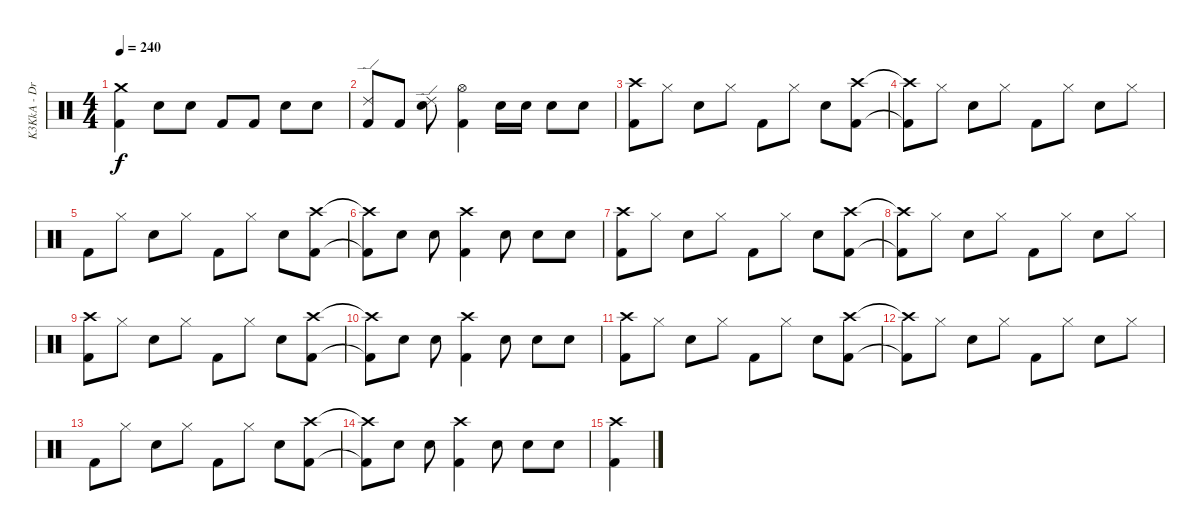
\track ("K3KkA - Drums" "K3KkA - Dr") {instrument percussion}
\staff {score}
\articulation defaults
\ts (4 4)
\tempo 240
\clef neutral
\ks c
("Crash medium (hit)" "Kick (hit) 2").4{dy f} "Electric Snare (hit)".8 "Electric Snare (hit)".8 "Kick (hit) 2".8 "Kick (hit) 2".8 "Electric Snare (hit)".8 "Electric Snare (hit)".8 |
("Ride (edge) 2" "Kick (hit) 2").8 "Kick (hit) 2".8 ("Ride (edge) 2" "Electric Snare (hit)").8 ("Hi-Hat (open)" "Kick (hit) 2").4 "Snare (hit) 2".16 "Snare (hit) 2".16 "Snare (hit) 2".8 "Snare (hit) 2".8 |
("Crash high (hit)" "Kick (hit) 2").8 "Hi-Hat (closed)".8 "Snare (hit) 2".8 "Hi-Hat (closed)".8 "Kick (hit) 2".8 "Hi-Hat (closed)".8 "Snare (hit) 2".8 ("Crash high (hit)" "Kick (hit) 2").8 |
("Crash high (hit)"{t} "Kick (hit) 2"{t}).8 "Hi-Hat (closed)".8 "Snare (hit) 2".8 "Hi-Hat (closed)".8 "Kick (hit) 2".8 "Hi-Hat (closed)".8 "Snare (hit) 2".8 "Hi-Hat (closed)".8 |
"Kick (hit) 2".8 "Hi-Hat (closed)".8 "Snare (hit) 2".8 "Hi-Hat (closed)".8 "Kick (hit) 2".8 "Hi-Hat (closed)".8 "Snare (hit) 2".8 ("Crash high (hit)" "Kick (hit) 2").8 |
("Crash high (hit)"{t} "Kick (hit) 2"{t}).8 "Snare (hit) 2".8 "Snare (hit) 2".8 ("Crash high (hit)" "Kick (hit) 2").4 "Snare (hit) 2".8 "Snare (hit) 2".8 "Snare (hit) 2".8 |
("Crash high (hit)" "Kick (hit) 2").8 "Hi-Hat (closed)".8 "Snare (hit) 2".8 "Hi-Hat (closed)".8 "Kick (hit) 2".8 "Hi-Hat (closed)".8 "Snare (hit) 2".8 ("Crash high (hit)" "Kick (hit) 2").8 |
("Crash high (hit)"{t} "Kick (hit) 2"{t}).8 "Hi-Hat (closed)".8 "Snare (hit) 2".8 "Hi-Hat (closed)".8 "Kick (hit) 2".8 "Hi-Hat (closed)".8 "Snare (hit) 2".8 "Hi-Hat (closed)".8 |
("Crash high (hit)" "Kick (hit) 2").8 "Hi-Hat (closed)".8 "Snare (hit) 2".8 "Hi-Hat (closed)".8 "Kick (hit) 2".8 "Hi-Hat (closed)".8 "Snare (hit) 2".8 ("Crash high (hit)" "Kick (hit) 2").8 |
("Crash high (hit)"{t} "Kick (hit) 2"{t}).8 "Snare (hit) 2".8 "Snare (hit) 2".8 ("Crash high (hit)" "Kick (hit) 2").4 "Snare (hit) 2".8 "Snare (hit) 2".8 "Snare (hit) 2".8 |
("Crash high (hit)" "Kick (hit) 2").8 "Hi-Hat (closed)".8 "Snare (hit) 2".8 "Hi-Hat (closed)".8 "Kick (hit) 2".8 "Hi-Hat (closed)".8 "Snare (hit) 2".8 ("Crash high (hit)" "Kick (hit) 2").8 |
("Crash high (hit)"{t} "Kick (hit) 2"{t}).8 "Hi-Hat (closed)".8 "Snare (hit) 2".8 "Hi-Hat (closed)".8 "Kick (hit) 2".8 "Hi-Hat (closed)".8 "Snare (hit) 2".8 "Hi-Hat (closed)".8 |
"Kick (hit) 2".8 "Hi-Hat (closed)".8 "Snare (hit) 2".8 "Hi-Hat (closed)".8 "Kick (hit) 2".8 "Hi-Hat (closed)".8 "Snare (hit) 2".8 ("Crash high (hit)" "Kick (hit) 2").8 |
("Crash high (hit)"{t} "Kick (hit) 2"{t}).8 "Snare (hit) 2".8 "Snare (hit) 2".8 ("Crash high (hit)" "Kick (hit) 2").4 "Snare (hit) 2".8 "Snare (hit) 2".8 "Snare (hit) 2".8 |
("Crash high (hit)" "Kick (hit) 2").4
